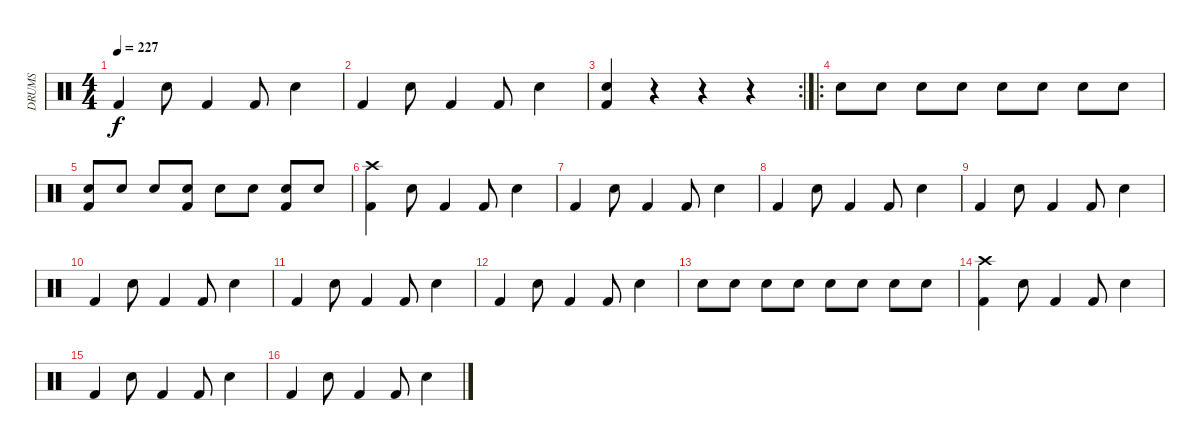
\track ("DRUMS" "DRUMS") {instrument percussion}
\staff {score}
\articulation defaults
\ts (4 4)
\tempo 227
\clef neutral
\ks c "Kick (hit) 2".4{dy f} "Snare (hit) 2".8 "Kick (hit) 2".4 "Kick (hit) 2".8 "Snare (hit) 2".4
|
"Kick (hit) 2".4 "Snare (hit) 2".8 "Kick (hit) 2".4 "Kick (hit) 2".8 "Snare (hit) 2".4 |
\rc 2
("Kick (hit) 2" "Snare (hit) 2").4 r.4 r.4 r.4 |
\ro "Snare (hit) 2".8 "Snare (hit) 2".8 "Snare (hit) 2".8 "Snare (hit) 2".8 "Snare (hit) 2".8 "Snare (hit) 2".8 "Snare (hit) 2".8 "Snare (hit) 2".8
|
("Kick (hit) 2" "Snare (hit) 2").8 "Snare (hit) 2".8 "Snare (hit) 2".8 ("Kick (hit) 2" "Snare (hit) 2").8 "Snare (hit) 2".8 "Snare (hit) 2".8 ("Kick (hit) 2" "Snare (hit) 2").8 "Snare (hit) 2".8 |
("Kick (hit) 2" "Crash high (hit)").4 "Snare (hit) 2".8 "Kick (hit) 2".4 "Kick (hit) 2".8 "Snare (hit) 2".4 |
"Kick (hit) 2".4 "Snare (hit) 2".8 "Kick (hit) 2".4 "Kick (hit) 2".8 "Snare (hit) 2".4 |
"Kick (hit) 2".4 "Snare (hit) 2".8 "Kick (hit) 2".4 "Kick (hit) 2".8 "Snare (hit) 2".4 |
"Kick (hit) 2".4 "Snare (hit) 2".8 "Kick (hit) 2".4 "Kick (hit) 2".8 "Snare (hit) 2".4 |
"Kick (hit) 2".4 "Snare (hit) 2".8 "Kick (hit) 2".4 "Kick (hit) 2".8 "Snare (hit) 2".4 |
"Kick (hit) 2".4 "Snare (hit) 2".8 "Kick (hit) 2".4 "Kick (hit) 2".8 "Snare (hit) 2".4 |
"Kick (hit) 2".4 "Snare (hit) 2".8 "Kick (hit) 2".4 "Kick (hit) 2".8 "Snare (hit) 2".4 |
"Snare (hit) 2".8 "Snare (hit) 2".8 "Snare (hit) 2".8 "Snare (hit) 2".8 "Snare (hit) 2".8 "Snare (hit) 2".8 "Snare (hit) 2".8 "Snare (hit) 2".8 |
("Kick (hit) 2" "Crash high (hit)").4 "Snare (hit) 2".8 "Kick (hit) 2".4 "Kick (hit) 2".8 "Snare (hit) 2".4 |
"Kick (hit) 2".4 "Snare (hit) 2".8 "Kick (hit) 2".4 "Kick (hit) 2".8 "Snare (hit) 2".4 |
"Kick (hit) 2".4 "Snare (hit) 2".8 "Kick (hit) 2".4 "Kick (hit) 2".8 "Snare (hit) 2".4
